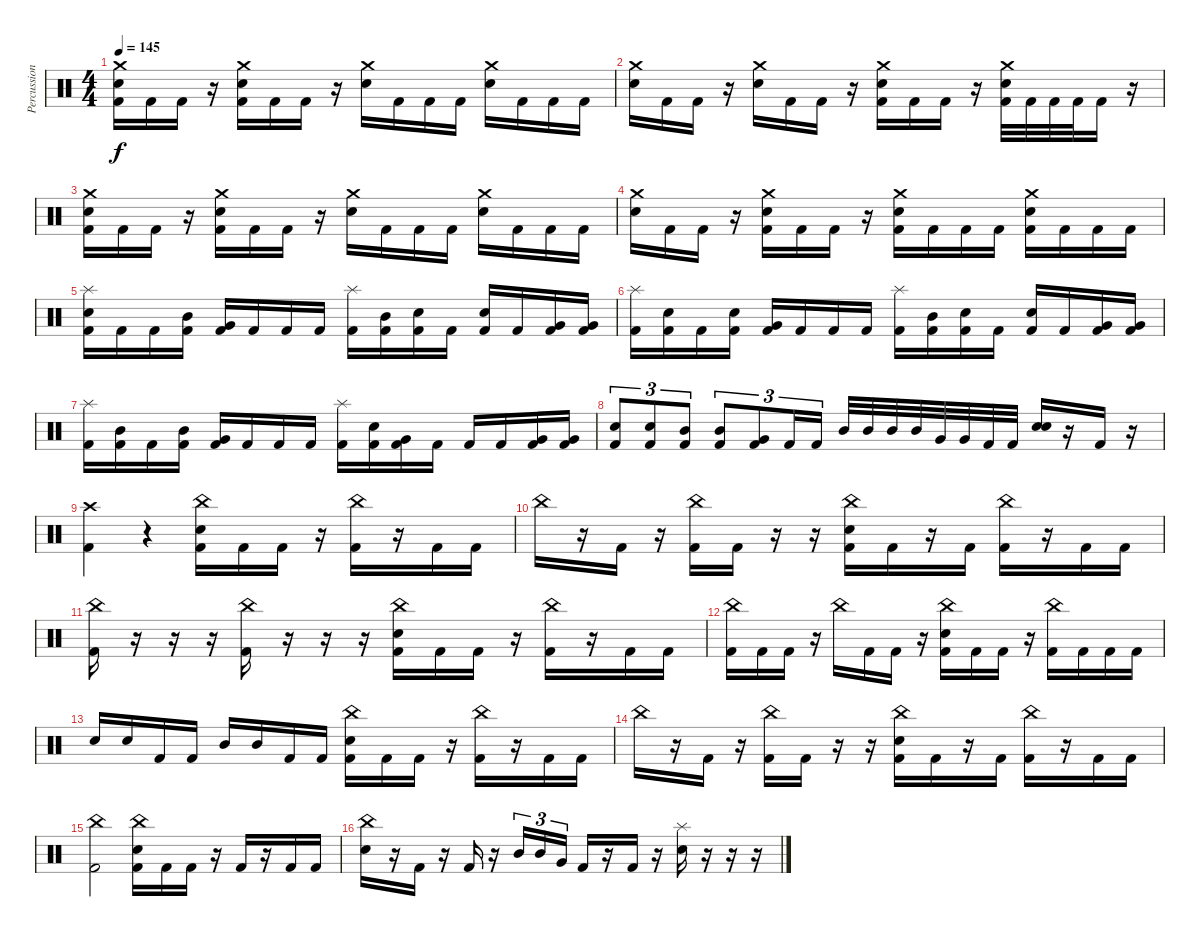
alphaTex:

\track ("Percussion" "Percussion") {instrument percussion}
\staff {score}
\articulation defaults
\ts (4 4)
\tempo 145
\clef neutral
\ks c
("Kick (hit) 2" "Electric Snare (hit)" "Crash medium (hit)").16{dy f} "Kick (hit) 2".16 "Kick (hit) 2".16 r.16 ("Kick (hit) 2" "Electric Snare (hit)" "Crash medium (hit)").16 "Kick (hit) 2".16 "Kick (hit) 2".16 r.16 ("Electric Snare (hit)" "Crash medium (hit)").16 "Kick (hit) 2".16 "Kick (hit) 2".16 "Kick (hit) 2".16 ("Electric Snare (hit)" "Crash medium (hit)").16 "Kick (hit) 2".16 "Kick (hit) 2".16 "Kick (hit) 2".16 |
("Electric Snare (hit)" "Crash medium (hit)").16 "Kick (hit) 2".16 "Kick (hit) 2".16 r.16 ("Electric Snare (hit)" "Crash medium (hit)").16 "Kick (hit) 2".16 "Kick (hit) 2".16 r.16 ("Kick (hit) 2" "Electric Snare (hit)" "Crash medium (hit)").16 "Kick (hit) 2".16 "Kick (hit) 2".16 r.16 ("Kick (hit) 2" "Electric Snare (hit)" "Crash medium (hit)").32 "Kick (hit) 2".32 "Kick (hit) 2".32 "Kick (hit) 2".32 "Kick (hit) 2".16 r.16 |
("Kick (hit) 2" "Electric Snare (hit)" "Crash medium (hit)").16 "Kick (hit) 2".16 "Kick (hit) 2".16 r.16 ("Kick (hit) 2" "Electric Snare (hit)" "Crash medium (hit)").16 "Kick (hit) 2".16 "Kick (hit) 2".16 r.16 ("Electric Snare (hit)" "Crash medium (hit)").16 "Kick (hit) 2".16 "Kick (hit) 2".16 "Kick (hit) 2".16 ("Electric Snare (hit)" "Crash medium (hit)").16 "Kick (hit) 2".16 "Kick (hit) 2".16 "Kick (hit) 2".16 |
("Electric Snare (hit)" "Crash medium (hit)").16 "Kick (hit) 2".16 "Kick (hit) 2".16 r.16 ("Kick (hit) 2" "Electric Snare (hit)" "Crash medium (hit)").16 "Kick (hit) 2".16 "Kick (hit) 2".16 r.16 ("Kick (hit) 2" "Electric Snare (hit)" "Crash medium (hit)").16 "Kick (hit) 2".16 "Kick (hit) 2".16 "Kick (hit) 2".16 ("Kick (hit) 2" "Electric Snare (hit)" "Crash medium (hit)").16 "Kick (hit) 2".16 "Kick (hit) 2".16 "Kick (hit) 2".16 |
("Kick (hit) 2" "Electric Snare (hit)" "Splash (hit)").16 "Kick (hit) 2".16 "Kick (hit) 2".16 ("Kick (hit) 2" "Mid Tom (hit)").16 ("Kick (hit) 2" "Very Low Tom (hit)").16 "Kick (hit) 2".16 "Kick (hit) 2".16 "Kick (hit) 2".16 ("Kick (hit) 2" "Splash (hit)").16 ("Kick (hit) 2" "Mid Tom (hit)").16 ("Kick (hit) 2" "Electric Snare (hit)").16 "Kick (hit) 2".16 ("Kick (hit) 2" "Electric Snare (hit)").16 "Kick (hit) 2".16 ("Kick (hit) 2" "Very Low Tom (hit)").16 ("Kick (hit) 2" "Very Low Tom (hit)").16 |
("Kick (hit) 2" "Splash (hit)").16 ("Kick (hit) 2" "Electric Snare (hit)").16 "Kick (hit) 2".16 ("Kick (hit) 2" "Electric Snare (hit)").16 ("Kick (hit) 2" "Very Low Tom (hit)").16 "Kick (hit) 2".16 "Kick (hit) 2".16 "Kick (hit) 2".16 ("Kick (hit) 2" "Splash (hit)").16 ("Kick (hit) 2" "Mid Tom (hit)").16 ("Kick (hit) 2" "Electric Snare (hit)").16 "Kick (hit) 2".16 ("Kick (hit) 2" "Electric Snare (hit)").16 "Kick (hit) 2".16 ("Kick (hit) 2" "Very Low Tom (hit)").16 ("Kick (hit) 2" "Very Low Tom (hit)").16 |
("Kick (hit) 2" "Splash (hit)").16 ("Kick (hit) 2" "Mid Tom (hit)").16 "Kick (hit) 2".16 ("Kick (hit) 2" "Mid Tom (hit)").16 ("Kick (hit) 2" "Very Low Tom (hit)").16 "Kick (hit) 2".16 "Kick (hit) 2".16 "Kick (hit) 2".16 ("Kick (hit) 2" "Splash (hit)").16 ("Kick (hit) 2" "Electric Snare (hit)").16 ("Kick (hit) 2" "Very Low Tom (hit)").16 "Kick (hit) 2".16 "Kick (hit) 2".16 "Kick (hit) 2".16 ("Kick (hit) 2" "Very Low Tom (hit)").16 ("Kick (hit) 2" "Very Low Tom (hit)").16 |
("Kick (hit) 2" "Electric Snare (hit)").8{tu (3 2)} ("Kick (hit) 2" "Electric Snare (hit)").8{tu (3 2)} ("Kick (hit) 2" "Mid Tom (hit)").8{tu (3 2)} ("Kick (hit) 2" "Mid Tom (hit)").8{tu (3 2)} ("Kick (hit) 2" "Very Low Tom (hit)").8{tu (3 2)} "Kick (hit) 2".16{tu (3 2)} "Kick (hit) 2".16{tu (3 2)} "Mid Tom (hit)".32 "Mid Tom (hit)".32 "Mid Tom (hit)".32 "Mid Tom (hit)".32 "Very Low Tom (hit)".32 "Very Low Tom (hit)".32 "Kick (hit) 2".32 "Kick (hit) 2".32 ("Electric Snare (hit)" "Electric Snare (hit)").16 r.16 "Kick (hit) 2".16 r.16 |
("Kick (hit) 2" "Crash high (hit)").4 r.4{volume 0} ("Kick (hit) 2" "Electric Snare (hit)" "China (hit)").16{volume 7} "Kick (hit) 2".16 "Kick (hit) 2".16 r.16 ("Kick (hit) 2" "China (hit)").16 r.16 "Kick (hit) 2".16 "Kick (hit) 2".16 |
"China (hit)".16 r.16 "Kick (hit) 2".16 r.16 ("Kick (hit) 2" "China (hit)").16 "Kick (hit) 2".16 r.16 r.16 ("Kick (hit) 2" "Electric Snare (hit)" "China (hit)").16 "Kick (hit) 2".16 r.16 "Kick (hit) 2".16 ("Kick (hit) 2" "China (hit)").16 r.16 "Kick (hit) 2".16 "Kick (hit) 2".16 |
("Kick (hit) 2" "China (hit)").16 r.16 r.16 r.16 ("Kick (hit) 2" "China (hit)").16 r.16 r.16 r.16 ("Kick (hit) 2" "Electric Snare (hit)" "China (hit)").16 "Kick (hit) 2".16 "Kick (hit) 2".16 r.16 ("Kick (hit) 2" "China (hit)").16 r.16 "Kick (hit) 2".16 "Kick (hit) 2".16 |
("Kick (hit) 2" "China (hit)").16 "Kick (hit) 2".16 "Kick (hit) 2".16 r.16 "China (hit)".16 "Kick (hit) 2".16 "Kick (hit) 2".16 r.16 ("Kick (hit) 2" "Electric Snare (hit)" "China (hit)").16 "Kick (hit) 2".16 "Kick (hit) 2".16 r.16 ("Kick (hit) 2" "China (hit)").16 "Kick (hit) 2".16 "Kick (hit) 2".16 "Kick (hit) 2".16 |
"Electric Snare (hit)".16 "Electric Snare (hit)".16 "Kick (hit) 2".16 "Kick (hit) 2".16 "Mid Tom (hit)".16 "Mid Tom (hit)".16 "Kick (hit) 2".16 "Kick (hit) 2".16 ("Kick (hit) 2" "Electric Snare (hit)" "China (hit)").16 "Kick (hit) 2".16 "Kick (hit) 2".16 r.16 ("Kick (hit) 2" "China (hit)").16 r.16 "Kick (hit) 2".16 "Kick (hit) 2".16 |
"China (hit)".16 r.16 "Kick (hit) 2".16 r.16 ("Kick (hit) 2" "China (hit)").16 "Kick (hit) 2".16 r.16 r.16 ("Kick (hit) 2" "Electric Snare (hit)" "China (hit)").16 "Kick (hit) 2".16 r.16 "Kick (hit) 2".16 ("Kick (hit) 2" "China (hit)").16 r.16 "Kick (hit) 2".16 "Kick (hit) 2".16 |
("Kick (hit) 2" "China (hit)").2 ("Kick (hit) 2" "Electric Snare (hit)" "China (hit)").16 "Kick (hit) 2".16 "Kick (hit) 2".16 r.16 "Kick (hit) 2".16 r.16 "Kick (hit) 2".16 "Kick (hit) 2".16 |
("Electric Snare (hit)" "China (hit)").16 r.16 "Kick (hit) 2".16 r.16 "Kick (hit) 2".16 r.16 "Mid Tom (hit)".16{tu (3 2)} "Mid Tom (hit)".16{tu (3 2)} "Very Low Tom (hit)".16{tu (3 2)} "Kick (hit) 2".16 r.16 "Kick (hit) 2".16 r.16 ("Electric Snare (hit)" "Splash (hit)").16 r.16 r.16 r.16
